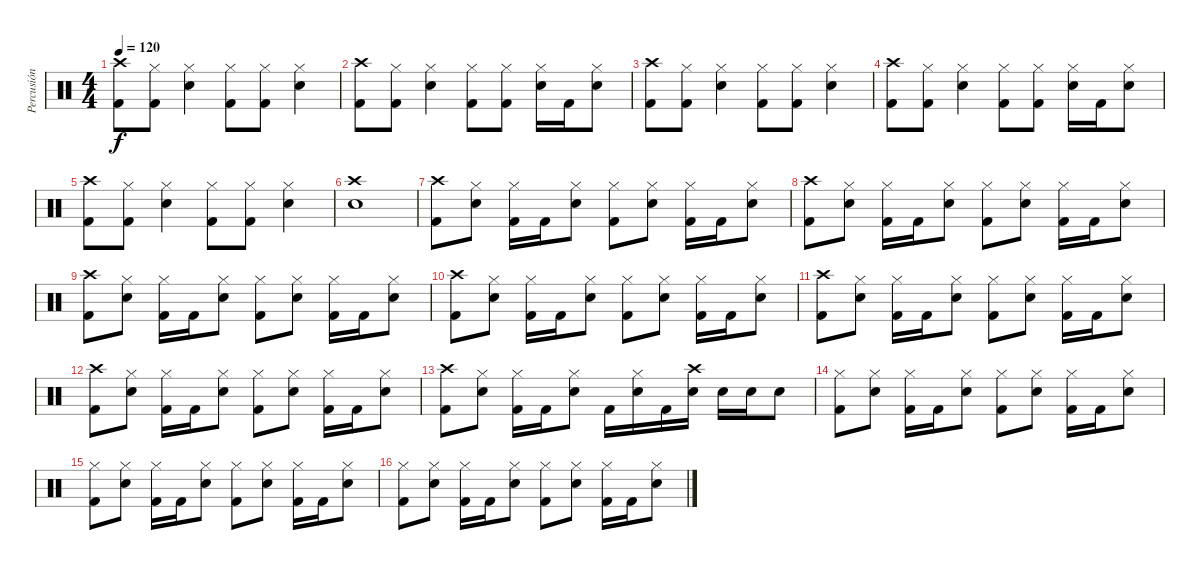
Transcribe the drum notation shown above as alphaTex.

\track ("Percusión" "Percusión") {instrument percussion}
\staff {score}
\articulation defaults
\ts (4 4)
\tempo 120
\clef neutral
\ks c
("Kick (hit) 2" "Crash high (hit)").8{dy f} ("Kick (hit) 2" "Hi-Hat (closed)").8 ("Snare (hit) 2" "Hi-Hat (closed)").4 ("Kick (hit) 2" "Hi-Hat (closed)").8 ("Kick (hit) 2" "Hi-Hat (closed)").8 ("Snare (hit) 2" "Hi-Hat (closed)").4 |
("Kick (hit) 2" "Crash high (hit)").8 ("Kick (hit) 2" "Hi-Hat (closed)").8 ("Snare (hit) 2" "Hi-Hat (closed)").4 ("Kick (hit) 2" "Hi-Hat (closed)").8 ("Kick (hit) 2" "Hi-Hat (closed)").8 ("Snare (hit) 2" "Hi-Hat (closed)").16 "Kick (hit) 2".16 ("Snare (hit) 2" "Hi-Hat (closed)").8 |
("Kick (hit) 2" "Crash high (hit)").8 ("Kick (hit) 2" "Hi-Hat (closed)").8 ("Snare (hit) 2" "Hi-Hat (closed)").4 ("Kick (hit) 2" "Hi-Hat (closed)").8 ("Kick (hit) 2" "Hi-Hat (closed)").8 ("Snare (hit) 2" "Hi-Hat (closed)").4 |
("Kick (hit) 2" "Crash high (hit)").8 ("Kick (hit) 2" "Hi-Hat (closed)").8 ("Snare (hit) 2" "Hi-Hat (closed)").4 ("Kick (hit) 2" "Hi-Hat (closed)").8 ("Kick (hit) 2" "Hi-Hat (closed)").8 ("Snare (hit) 2" "Hi-Hat (closed)").16 "Kick (hit) 2".16 ("Snare (hit) 2" "Hi-Hat (closed)").8 |
("Kick (hit) 2" "Crash high (hit)").8 ("Kick (hit) 2" "Hi-Hat (closed)").8 ("Snare (hit) 2" "Hi-Hat (closed)").4 ("Kick (hit) 2" "Hi-Hat (closed)").8 ("Kick (hit) 2" "Hi-Hat (closed)").8 ("Snare (hit) 2" "Hi-Hat (closed)").4 |
("Snare (hit) 2" "Crash high (hit)").1 |
("Kick (hit) 2" "Crash high (hit)").8 ("Snare (hit) 2" "Hi-Hat (closed)").8 ("Kick (hit) 2" "Hi-Hat (closed)").16 "Kick (hit) 2".16 ("Snare (hit) 2" "Hi-Hat (closed)").8 ("Kick (hit) 2" "Hi-Hat (closed)").8 ("Snare (hit) 2" "Hi-Hat (closed)").8 ("Kick (hit) 2" "Hi-Hat (closed)").16 "Kick (hit) 2".16 ("Snare (hit) 2" "Hi-Hat (closed)").8 |
("Kick (hit) 2" "Crash high (hit)").8 ("Snare (hit) 2" "Hi-Hat (closed)").8 ("Kick (hit) 2" "Hi-Hat (closed)").16 "Kick (hit) 2".16 ("Snare (hit) 2" "Hi-Hat (closed)").8 ("Kick (hit) 2" "Hi-Hat (closed)").8 ("Snare (hit) 2" "Hi-Hat (closed)").8 ("Kick (hit) 2" "Hi-Hat (closed)").16 "Kick (hit) 2".16 ("Snare (hit) 2" "Hi-Hat (closed)").8 |
("Kick (hit) 2" "Crash high (hit)").8 ("Snare (hit) 2" "Hi-Hat (closed)").8 ("Kick (hit) 2" "Hi-Hat (closed)").16 "Kick (hit) 2".16 ("Snare (hit) 2" "Hi-Hat (closed)").8 ("Kick (hit) 2" "Hi-Hat (closed)").8 ("Snare (hit) 2" "Hi-Hat (closed)").8 ("Kick (hit) 2" "Hi-Hat (closed)").16 "Kick (hit) 2".16 ("Snare (hit) 2" "Hi-Hat (closed)").8 |
("Kick (hit) 2" "Crash high (hit)").8 ("Snare (hit) 2" "Hi-Hat (closed)").8 ("Kick (hit) 2" "Hi-Hat (closed)").16 "Kick (hit) 2".16 ("Snare (hit) 2" "Hi-Hat (closed)").8 ("Kick (hit) 2" "Hi-Hat (closed)").8 ("Snare (hit) 2" "Hi-Hat (closed)").8 ("Kick (hit) 2" "Hi-Hat (closed)").16 "Kick (hit) 2".16 ("Snare (hit) 2" "Hi-Hat (closed)").8 |
("Kick (hit) 2" "Crash high (hit)").8 ("Snare (hit) 2" "Hi-Hat (closed)").8 ("Kick (hit) 2" "Hi-Hat (closed)").16 "Kick (hit) 2".16 ("Snare (hit) 2" "Hi-Hat (closed)").8 ("Kick (hit) 2" "Hi-Hat (closed)").8 ("Snare (hit) 2" "Hi-Hat (closed)").8 ("Kick (hit) 2" "Hi-Hat (closed)").16 "Kick (hit) 2".16 ("Snare (hit) 2" "Hi-Hat (closed)").8 |
("Kick (hit) 2" "Crash high (hit)").8 ("Snare (hit) 2" "Hi-Hat (closed)").8 ("Kick (hit) 2" "Hi-Hat (closed)").16 "Kick (hit) 2".16 ("Snare (hit) 2" "Hi-Hat (closed)").8 ("Kick (hit) 2" "Hi-Hat (closed)").8 ("Snare (hit) 2" "Hi-Hat (closed)").8 ("Kick (hit) 2" "Hi-Hat (closed)").16 "Kick (hit) 2".16 ("Snare (hit) 2" "Hi-Hat (closed)").8 |
("Kick (hit) 2" "Crash high (hit)").8 ("Snare (hit) 2" "Hi-Hat (closed)").8 ("Kick (hit) 2" "Hi-Hat (closed)").16 "Kick (hit) 2".16 ("Snare (hit) 2" "Hi-Hat (closed)").8 "Kick (hit) 2".16 ("Snare (hit) 2" "Hi-Hat (closed)").16 "Kick (hit) 2".16 ("Snare (hit) 2" "Crash high (hit)").16 "Snare (hit) 2".16 "Snare (hit) 2".16 "Snare (hit) 2".8 |
("Kick (hit) 2" "Hi-Hat (closed)").8 ("Snare (hit) 2" "Hi-Hat (closed)").8 ("Kick (hit) 2" "Hi-Hat (closed)").16 "Kick (hit) 2".16 ("Snare (hit) 2" "Hi-Hat (closed)").8 ("Kick (hit) 2" "Hi-Hat (closed)").8 ("Snare (hit) 2" "Hi-Hat (closed)").8 ("Kick (hit) 2" "Hi-Hat (closed)").16 "Kick (hit) 2".16 ("Snare (hit) 2" "Hi-Hat (closed)").8 |
("Kick (hit) 2" "Hi-Hat (closed)").8 ("Snare (hit) 2" "Hi-Hat (closed)").8 ("Kick (hit) 2" "Hi-Hat (closed)").16 "Kick (hit) 2".16 ("Snare (hit) 2" "Hi-Hat (closed)").8 ("Kick (hit) 2" "Hi-Hat (closed)").8 ("Snare (hit) 2" "Hi-Hat (closed)").8 ("Kick (hit) 2" "Hi-Hat (closed)").16 "Kick (hit) 2".16 ("Snare (hit) 2" "Hi-Hat (closed)").8 |
("Kick (hit) 2" "Hi-Hat (closed)").8 ("Snare (hit) 2" "Hi-Hat (closed)").8 ("Kick (hit) 2" "Hi-Hat (closed)").16 "Kick (hit) 2".16 ("Snare (hit) 2" "Hi-Hat (closed)").8 ("Kick (hit) 2" "Hi-Hat (closed)").8 ("Snare (hit) 2" "Hi-Hat (closed)").8 ("Kick (hit) 2" "Hi-Hat (closed)").16 "Kick (hit) 2".16 ("Snare (hit) 2" "Hi-Hat (closed)").8
